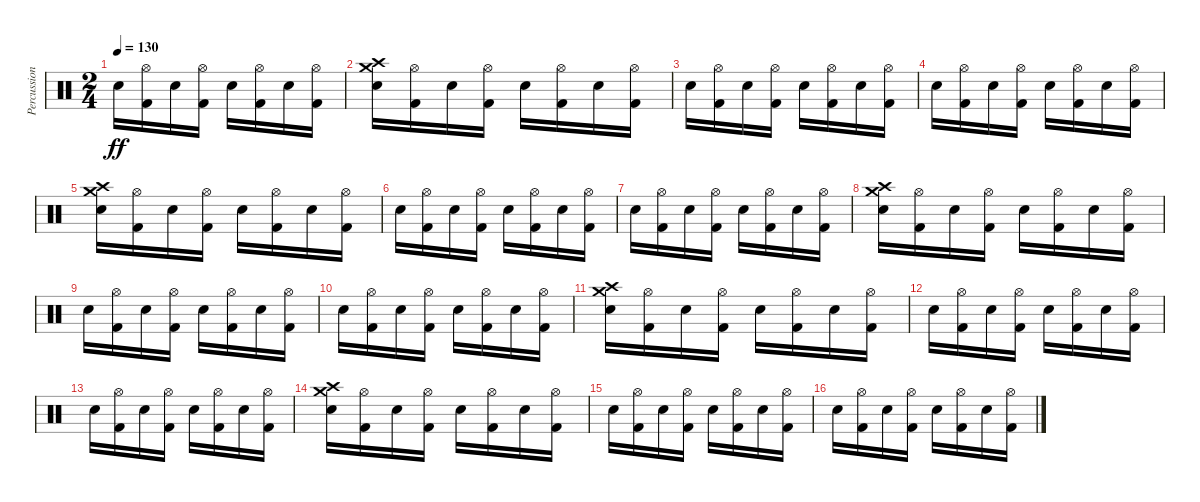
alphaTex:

\track ("Percussion" "Percussion") {instrument percussion}
\staff {score}
\articulation defaults
\ts (2 4)
\tempo 130
\clef neutral
\ks c "Snare (hit) 2".16{dy ff}
("Hi-Hat (open)" "Kick (hit) 2").16 "Snare (hit) 2".16 ("Hi-Hat (open)" "Kick (hit) 2").16 "Snare (hit) 2".16 ("Hi-Hat (open)" "Kick (hit) 2").16 "Snare (hit) 2".16 ("Hi-Hat (open)" "Kick (hit) 2").16 |
("Crash medium (hit)" "Crash high (hit)" "Snare (hit) 2").16 ("Hi-Hat (open)" "Kick (hit) 2").16 "Snare (hit) 2".16 ("Hi-Hat (open)" "Kick (hit) 2").16 "Snare (hit) 2".16 ("Hi-Hat (open)" "Kick (hit) 2").16 "Snare (hit) 2".16 ("Hi-Hat (open)" "Kick (hit) 2").16 |
"Snare (hit) 2".16 ("Hi-Hat (open)" "Kick (hit) 2").16 "Snare (hit) 2".16 ("Hi-Hat (open)" "Kick (hit) 2").16 "Snare (hit) 2".16 ("Hi-Hat (open)" "Kick (hit) 2").16 "Snare (hit) 2".16 ("Hi-Hat (open)" "Kick (hit) 2").16 |
"Snare (hit) 2".16 ("Hi-Hat (open)" "Kick (hit) 2").16 "Snare (hit) 2".16 ("Hi-Hat (open)" "Kick (hit) 2").16 "Snare (hit) 2".16 ("Hi-Hat (open)" "Kick (hit) 2").16 "Snare (hit) 2".16 ("Hi-Hat (open)" "Kick (hit) 2").16 |
("Crash medium (hit)" "Crash high (hit)" "Snare (hit) 2").16 ("Hi-Hat (open)" "Kick (hit) 2").16 "Snare (hit) 2".16 ("Hi-Hat (open)" "Kick (hit) 2").16 "Snare (hit) 2".16 ("Hi-Hat (open)" "Kick (hit) 2").16 "Snare (hit) 2".16 ("Hi-Hat (open)" "Kick (hit) 2").16 |
"Snare (hit) 2".16 ("Hi-Hat (open)" "Kick (hit) 2").16 "Snare (hit) 2".16 ("Hi-Hat (open)" "Kick (hit) 2").16 "Snare (hit) 2".16 ("Hi-Hat (open)" "Kick (hit) 2").16 "Snare (hit) 2".16 ("Hi-Hat (open)" "Kick (hit) 2").16 |
"Snare (hit) 2".16 ("Hi-Hat (open)" "Kick (hit) 2").16 "Snare (hit) 2".16 ("Hi-Hat (open)" "Kick (hit) 2").16 "Snare (hit) 2".16 ("Hi-Hat (open)" "Kick (hit) 2").16 "Snare (hit) 2".16 ("Hi-Hat (open)" "Kick (hit) 2").16 |
("Crash medium (hit)" "Crash high (hit)" "Snare (hit) 2").16 ("Hi-Hat (open)" "Kick (hit) 2").16 "Snare (hit) 2".16 ("Hi-Hat (open)" "Kick (hit) 2").16 "Snare (hit) 2".16 ("Hi-Hat (open)" "Kick (hit) 2").16 "Snare (hit) 2".16 ("Hi-Hat (open)" "Kick (hit) 2").16 |
"Snare (hit) 2".16 ("Hi-Hat (open)" "Kick (hit) 2").16 "Snare (hit) 2".16 ("Hi-Hat (open)" "Kick (hit) 2").16 "Snare (hit) 2".16 ("Hi-Hat (open)" "Kick (hit) 2").16 "Snare (hit) 2".16 ("Hi-Hat (open)" "Kick (hit) 2").16 |
"Snare (hit) 2".16 ("Hi-Hat (open)" "Kick (hit) 2").16 "Snare (hit) 2".16 ("Hi-Hat (open)" "Kick (hit) 2").16 "Snare (hit) 2".16 ("Hi-Hat (open)" "Kick (hit) 2").16 "Snare (hit) 2".16 ("Hi-Hat (open)" "Kick (hit) 2").16 |
("Crash medium (hit)" "Crash high (hit)" "Snare (hit) 2").16 ("Hi-Hat (open)" "Kick (hit) 2").16 "Snare (hit) 2".16 ("Hi-Hat (open)" "Kick (hit) 2").16 "Snare (hit) 2".16 ("Hi-Hat (open)" "Kick (hit) 2").16 "Snare (hit) 2".16 ("Hi-Hat (open)" "Kick (hit) 2").16 |
"Snare (hit) 2".16 ("Hi-Hat (open)" "Kick (hit) 2").16 "Snare (hit) 2".16 ("Hi-Hat (open)" "Kick (hit) 2").16 "Snare (hit) 2".16 ("Hi-Hat (open)" "Kick (hit) 2").16 "Snare (hit) 2".16 ("Hi-Hat (open)" "Kick (hit) 2").16 |
"Snare (hit) 2".16 ("Hi-Hat (open)" "Kick (hit) 2").16 "Snare (hit) 2".16 ("Hi-Hat (open)" "Kick (hit) 2").16 "Snare (hit) 2".16 ("Hi-Hat (open)" "Kick (hit) 2").16 "Snare (hit) 2".16 ("Hi-Hat (open)" "Kick (hit) 2").16 |
("Crash medium (hit)" "Crash high (hit)" "Snare (hit) 2").16 ("Hi-Hat (open)" "Kick (hit) 2").16 "Snare (hit) 2".16 ("Hi-Hat (open)" "Kick (hit) 2").16 "Snare (hit) 2".16 ("Hi-Hat (open)" "Kick (hit) 2").16 "Snare (hit) 2".16 ("Hi-Hat (open)" "Kick (hit) 2").16 |
"Snare (hit) 2".16 ("Hi-Hat (open)" "Kick (hit) 2").16 "Snare (hit) 2".16 ("Hi-Hat (open)" "Kick (hit) 2").16 "Snare (hit) 2".16 ("Hi-Hat (open)" "Kick (hit) 2").16 "Snare (hit) 2".16 ("Hi-Hat (open)" "Kick (hit) 2").16 |
"Snare (hit) 2".16 ("Hi-Hat (open)" "Kick (hit) 2").16 "Snare (hit) 2".16 ("Hi-Hat (open)" "Kick (hit) 2").16 "Snare (hit) 2".16 ("Hi-Hat (open)" "Kick (hit) 2").16 "Snare (hit) 2".16 ("Hi-Hat (open)" "Kick (hit) 2").16
